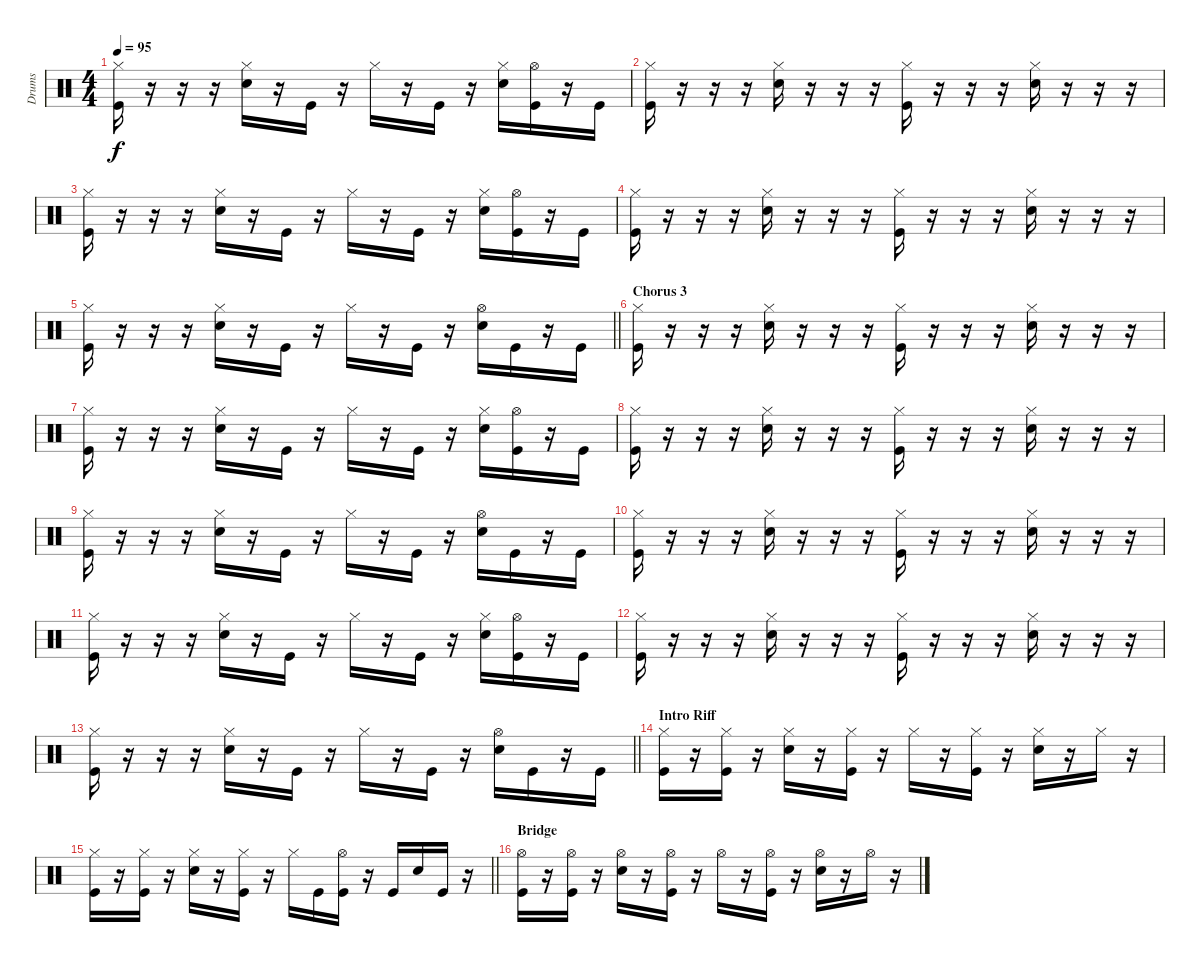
\track ("Drums" "Drums") {instrument percussion bank 177}
\staff {score}
\articulation defaults
\ts (4 4)
\tempo 95
\clef neutral
\ks c
("Hi-Hat (closed)" "Kick (hit)").16{dy f} r.16 r.16 r.16 ("Hi-Hat (closed)" "Snare (hit) 2").16 r.16 "Kick (hit)".16 r.16 "Hi-Hat (closed)".16 r.16 "Kick (hit)".16 r.16 ("Hi-Hat (closed)" "Snare (hit) 2").16 ("Hi-Hat (open)" "Kick (hit)").16 r.16 "Kick (hit)".16 |
("Hi-Hat (closed)" "Kick (hit)").16 r.16 r.16 r.16 ("Hi-Hat (closed)" "Snare (hit) 2").16 r.16 r.16 r.16 ("Hi-Hat (closed)" "Kick (hit)").16 r.16 r.16 r.16 ("Hi-Hat (closed)" "Snare (hit) 2").16 r.16 r.16 r.16 |
("Hi-Hat (closed)" "Kick (hit)").16 r.16 r.16 r.16 ("Hi-Hat (closed)" "Snare (hit) 2").16 r.16 "Kick (hit)".16 r.16 "Hi-Hat (closed)".16 r.16 "Kick (hit)".16 r.16 ("Hi-Hat (closed)" "Snare (hit) 2").16 ("Hi-Hat (open)" "Kick (hit)").16 r.16 "Kick (hit)".16 |
("Hi-Hat (closed)" "Kick (hit)").16 r.16 r.16 r.16 ("Hi-Hat (closed)" "Snare (hit) 2").16 r.16 r.16 r.16 ("Hi-Hat (closed)" "Kick (hit)").16 r.16 r.16 r.16 ("Hi-Hat (closed)" "Snare (hit) 2").16 r.16 r.16 r.16 |
\barLineRight lightlight
("Hi-Hat (closed)" "Kick (hit)").16 r.16 r.16 r.16 ("Hi-Hat (closed)" "Snare (hit) 2").16 r.16 "Kick (hit)".16 r.16 "Hi-Hat (closed)".16 r.16 "Kick (hit)".16 r.16 ("Hi-Hat (open)" "Snare (hit) 2").16 "Kick (hit)".16 r.16 "Kick (hit)".16 |
\section ("" "Chorus 3")
("Hi-Hat (closed)" "Kick (hit)").16 r.16 r.16 r.16 ("Hi-Hat (closed)" "Snare (hit) 2").16 r.16 r.16 r.16 ("Hi-Hat (closed)" "Kick (hit)").16 r.16 r.16 r.16 ("Hi-Hat (closed)" "Snare (hit) 2").16 r.16 r.16 r.16 |
("Hi-Hat (closed)" "Kick (hit)").16 r.16 r.16 r.16 ("Hi-Hat (closed)" "Snare (hit) 2").16 r.16 "Kick (hit)".16 r.16 "Hi-Hat (closed)".16 r.16 "Kick (hit)".16 r.16 ("Hi-Hat (closed)" "Snare (hit) 2").16 ("Hi-Hat (open)" "Kick (hit)").16 r.16 "Kick (hit)".16 |
("Hi-Hat (closed)" "Kick (hit)").16 r.16 r.16 r.16 ("Hi-Hat (closed)" "Snare (hit) 2").16 r.16 r.16 r.16 ("Hi-Hat (closed)" "Kick (hit)").16 r.16 r.16 r.16 ("Hi-Hat (closed)" "Snare (hit) 2").16 r.16 r.16 r.16 |
("Hi-Hat (closed)" "Kick (hit)").16 r.16 r.16 r.16 ("Hi-Hat (closed)" "Snare (hit) 2").16 r.16 "Kick (hit)".16 r.16 "Hi-Hat (closed)".16 r.16 "Kick (hit)".16 r.16 ("Hi-Hat (open)" "Snare (hit) 2").16 "Kick (hit)".16 r.16 "Kick (hit)".16 |
("Hi-Hat (closed)" "Kick (hit)").16 r.16 r.16 r.16 ("Hi-Hat (closed)" "Snare (hit) 2").16 r.16 r.16 r.16 ("Hi-Hat (closed)" "Kick (hit)").16 r.16 r.16 r.16 ("Hi-Hat (closed)" "Snare (hit) 2").16 r.16 r.16 r.16 |
("Hi-Hat (closed)" "Kick (hit)").16 r.16 r.16 r.16 ("Hi-Hat (closed)" "Snare (hit) 2").16 r.16 "Kick (hit)".16 r.16 "Hi-Hat (closed)".16 r.16 "Kick (hit)".16 r.16 ("Hi-Hat (closed)" "Snare (hit) 2").16 ("Hi-Hat (open)" "Kick (hit)").16 r.16 "Kick (hit)".16 |
("Hi-Hat (closed)" "Kick (hit)").16 r.16 r.16 r.16 ("Hi-Hat (closed)" "Snare (hit) 2").16 r.16 r.16 r.16 ("Hi-Hat (closed)" "Kick (hit)").16 r.16 r.16 r.16 ("Hi-Hat (closed)" "Snare (hit) 2").16 r.16 r.16 r.16 |
\barLineRight lightlight
("Hi-Hat (closed)" "Kick (hit)").16 r.16 r.16 r.16 ("Hi-Hat (closed)" "Snare (hit) 2").16 r.16 "Kick (hit)".16 r.16 "Hi-Hat (closed)".16 r.16 "Kick (hit)".16 r.16 ("Hi-Hat (open)" "Snare (hit) 2").16 "Kick (hit)".16 r.16 "Kick (hit)".16 |
\section ("" "Intro Riff")
("Hi-Hat (closed)" "Kick (hit)").16 r.16 ("Hi-Hat (closed)" "Kick (hit)").16 r.16 ("Hi-Hat (closed)" "Snare (hit) 2").16 r.16 ("Hi-Hat (closed)" "Kick (hit)").16 r.16 "Hi-Hat (closed)".16 r.16 ("Hi-Hat (closed)" "Kick (hit)").16 r.16 ("Hi-Hat (closed)" "Snare (hit) 2").16 r.16 "Hi-Hat (closed)".16 r.16 |
\barLineRight lightlight
("Hi-Hat (closed)" "Kick (hit)").16 r.16 ("Hi-Hat (closed)" "Kick (hit)").16 r.16 ("Hi-Hat (closed)" "Snare (hit) 2").16 r.16 ("Hi-Hat (closed)" "Kick (hit)").16 r.16 "Hi-Hat (closed)".16 "Kick (hit)".16 ("Hi-Hat (open)" "Kick (hit)").16 r.16 "Kick (hit)".16 "Snare (hit) 2".16 "Kick (hit)".16 r.16 |
\section ("" "Bridge")
("Hi-Hat (open)" "Kick (hit)").16 r.16 ("Hi-Hat (open)" "Kick (hit)").16 r.16 ("Hi-Hat (open)" "Snare (hit) 2").16 r.16 ("Hi-Hat (open)" "Kick (hit)").16 r.16 "Hi-Hat (open)".16 r.16 ("Hi-Hat (open)" "Kick (hit)").16 r.16 ("Hi-Hat (open)" "Snare (hit) 2").16 r.16 "Hi-Hat (open)".16 r.16
